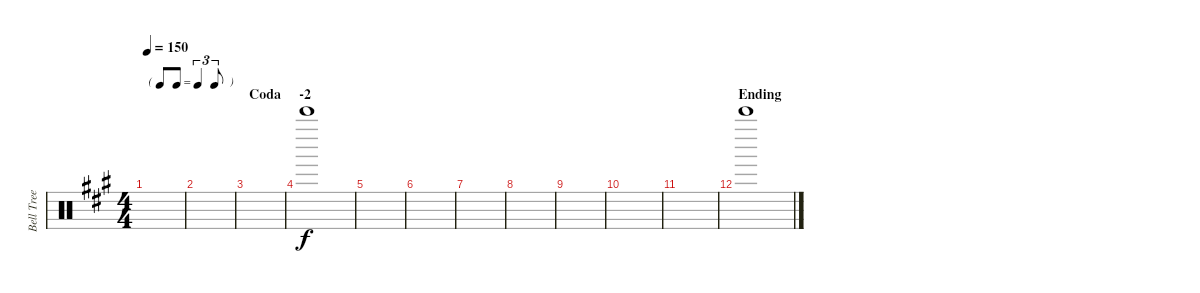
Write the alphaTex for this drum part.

\track ("Bell Tree" "Bell Tree") {instrument percussion}
\staff {score}
\articulation defaults
\ts (4 4)
\tf triplet8th
\tempo 150
\clef neutral
\ks a
|
|
\section ("" "Coda")
|
\section ("" "-2")
"Bell Tree (hit)".1 |
|
|
|
|
|
|
|
\section ("" "Ending")
"Bell Tree (hit)".1
